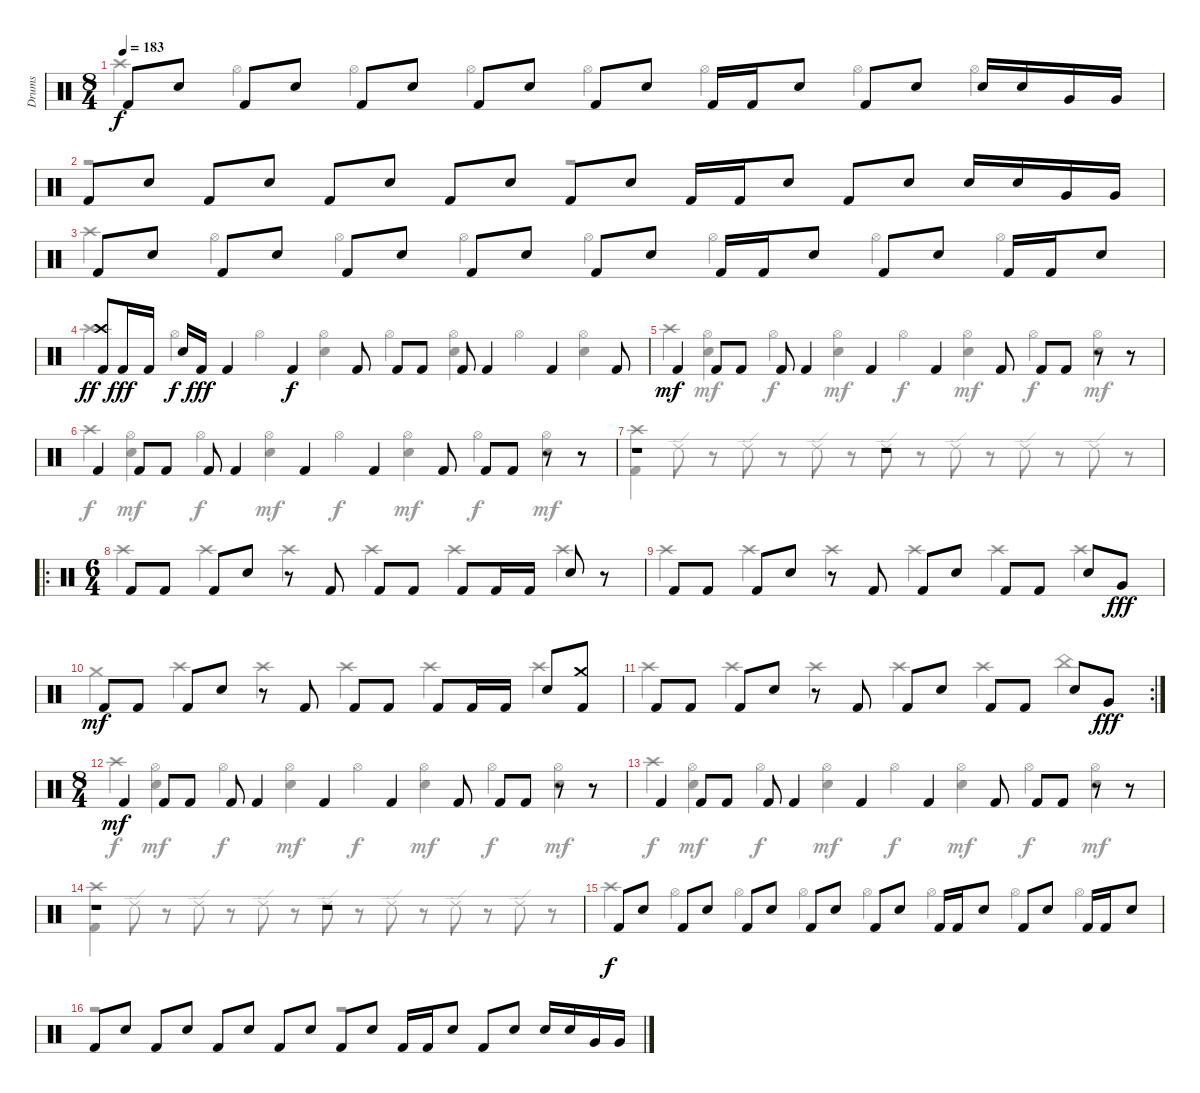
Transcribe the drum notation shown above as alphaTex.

\track ("Drums" "Drums") {instrument percussion}
\staff {score}
\articulation defaults
\voice
\ts (8 4)
\tempo 183
\clef neutral
\ks c "Kick (hit) 2".8{dy f} "Electric Snare (hit)".8 "Kick (hit) 2".8 "Electric Snare (hit)".8 "Kick (hit) 2".8 "Electric Snare (hit)".8 "Kick (hit) 2".8 "Electric Snare (hit)".8 "Kick (hit) 2".8 "Electric Snare (hit)".8 "Kick (hit) 2".16 "Kick (hit) 2".16 "Electric Snare (hit)".8 "Kick (hit) 2".8 "Electric Snare (hit)".8 "Electric Snare (hit)".16 "Electric Snare (hit)".16 "Very Low Tom (hit)".16 "Very Low Tom (hit)".16
|
"Kick (hit) 2".8 "Electric Snare (hit)".8 "Kick (hit) 2".8 "Electric Snare (hit)".8 "Kick (hit) 2".8 "Electric Snare (hit)".8 "Kick (hit) 2".8 "Electric Snare (hit)".8 "Kick (hit) 2".8 "Electric Snare (hit)".8 "Kick (hit) 2".16 "Kick (hit) 2".16 "Electric Snare (hit)".8 "Kick (hit) 2".8 "Electric Snare (hit)".8 "Electric Snare (hit)".16 "Electric Snare (hit)".16 "Very Low Tom (hit)".16 "Very Low Tom (hit)".16 |
"Kick (hit) 2".8 "Electric Snare (hit)".8 "Kick (hit) 2".8 "Electric Snare (hit)".8 "Kick (hit) 2".8 "Electric Snare (hit)".8 "Kick (hit) 2".8 "Electric Snare (hit)".8 "Kick (hit) 2".8 "Electric Snare (hit)".8 "Kick (hit) 2".16 "Kick (hit) 2".16 "Electric Snare (hit)".8 "Kick (hit) 2".8 "Electric Snare (hit)".8 "Kick (hit) 2".16 "Kick (hit) 2".16 "Electric Snare (hit)".8 |
("Crash high (hit)" "Kick (hit) 2").8{dy ff} "Kick (hit) 2".16{dy fff} "Kick (hit) 2".16 "Electric Snare (hit)".16{dy f} "Kick (hit) 2".16{dy fff} "Kick (hit) 2".4 "Kick (hit) 2".4{dy f} "Kick (hit) 2".8 "Kick (hit) 2".8 "Kick (hit) 2".8 "Kick (hit) 2".8 "Kick (hit) 2".4 "Kick (hit) 2".4 "Kick (hit) 2".8 |
"Kick (hit) 2".4{dy mf} "Kick (hit) 2".8 "Kick (hit) 2".8 "Kick (hit) 2".8 "Kick (hit) 2".4 "Kick (hit) 2".4 "Kick (hit) 2".4 "Kick (hit) 2".8 "Kick (hit) 2".8 "Kick (hit) 2".8 r.8 r.8 |
"Kick (hit) 2".4 "Kick (hit) 2".8 "Kick (hit) 2".8 "Kick (hit) 2".8 "Kick (hit) 2".4 "Kick (hit) 2".4 "Kick (hit) 2".4 "Kick (hit) 2".8 "Kick (hit) 2".8 "Kick (hit) 2".8 r.8 r.8 |
r.1 r.1 |
\ro
\ts (6 4)
"Kick (hit) 2".8 "Kick (hit) 2".8 "Kick (hit) 2".8 "Electric Snare (hit)".8 r.8 "Kick (hit) 2".8 "Kick (hit) 2".8 "Kick (hit) 2".8 "Kick (hit) 2".8 "Kick (hit) 2".16 "Kick (hit) 2".16 "Electric Snare (hit)".8 r.8 |
"Kick (hit) 2".8 "Kick (hit) 2".8 "Kick (hit) 2".8 "Electric Snare (hit)".8 r.8 "Kick (hit) 2".8 "Kick (hit) 2".8 "Electric Snare (hit)".8 "Kick (hit) 2".8 "Kick (hit) 2".8 "Electric Snare (hit)".8 "Very Low Tom (hit)".8{dy fff} |
"Kick (hit) 2".8{dy mf} "Kick (hit) 2".8 "Kick (hit) 2".8 "Electric Snare (hit)".8 r.8 "Kick (hit) 2".8 "Kick (hit) 2".8 "Kick (hit) 2".8 "Kick (hit) 2".8 "Kick (hit) 2".16 "Kick (hit) 2".16 "Electric Snare (hit)".8 ("Crash medium (hit)" "Kick (hit) 2").8 |
\rc 2 "Kick (hit) 2".8 "Kick (hit) 2".8 "Kick (hit) 2".8 "Electric Snare (hit)".8
r.8 "Kick (hit) 2".8 "Kick (hit) 2".8 "Electric Snare (hit)".8 "Kick (hit) 2".8 "Kick (hit) 2".8 "Electric Snare (hit)".8 "Very Low Tom (hit)".8{dy fff} |
\ts (8 4)
"Kick (hit) 2".4{dy mf} "Kick (hit) 2".8 "Kick (hit) 2".8 "Kick (hit) 2".8 "Kick (hit) 2".4 "Kick (hit) 2".4 "Kick (hit) 2".4 "Kick (hit) 2".8 "Kick (hit) 2".8 "Kick (hit) 2".8 r.8 r.8 |
"Kick (hit) 2".4 "Kick (hit) 2".8 "Kick (hit) 2".8 "Kick (hit) 2".8 "Kick (hit) 2".4 "Kick (hit) 2".4 "Kick (hit) 2".4 "Kick (hit) 2".8 "Kick (hit) 2".8 "Kick (hit) 2".8 r.8 r.8 |
r.1 r.1 |
"Kick (hit) 2".8{dy f} "Electric Snare (hit)".8 "Kick (hit) 2".8 "Electric Snare (hit)".8 "Kick (hit) 2".8 "Electric Snare (hit)".8 "Kick (hit) 2".8 "Electric Snare (hit)".8 "Kick (hit) 2".8 "Electric Snare (hit)".8 "Kick (hit) 2".16 "Kick (hit) 2".16 "Electric Snare (hit)".8 "Kick (hit) 2".8 "Electric Snare (hit)".8 "Kick (hit) 2".16 "Kick (hit) 2".16 "Electric Snare (hit)".8 |
"Kick (hit) 2".8 "Electric Snare (hit)".8 "Kick (hit) 2".8 "Electric Snare (hit)".8 "Kick (hit) 2".8 "Electric Snare (hit)".8 "Kick (hit) 2".8 "Electric Snare (hit)".8 "Kick (hit) 2".8 "Electric Snare (hit)".8 "Kick (hit) 2".16 "Kick (hit) 2".16 "Electric Snare (hit)".8 "Kick (hit) 2".8 "Electric Snare (hit)".8 "Electric Snare (hit)".16 "Electric Snare (hit)".16 "Very Low Tom (hit)".16 "Very Low Tom (hit)".16
\voice
\clef neutral
\ottava regular
\simile none
\ks c "Crash high (hit)".4{dy f} "Hi-Hat (open)".4 "Hi-Hat (open)".4 "Hi-Hat (open)".4 "Hi-Hat (open)".4 "Hi-Hat (open)".4 "Hi-Hat (open)".4 "Hi-Hat (open)".4
|
r.1 r.1 |
"Crash high (hit)".4 "Hi-Hat (open)".4 "Hi-Hat (open)".4 "Hi-Hat (open)".4 "Hi-Hat (open)".4 "Hi-Hat (open)".4 "Hi-Hat (open)".4 "Hi-Hat (open)".4 |
"Crash high (hit)".4 "Hi-Hat (open)".4 "Hi-Hat (open)".4 ("Hi-Hat (open)" "Electric Snare (hit)").4 "Hi-Hat (open)".4 ("Hi-Hat (open)" "Electric Snare (hit)").4 "Hi-Hat (open)".4 ("Hi-Hat (open)" "Electric Snare (hit)").4 |
"Crash high (hit)".4 ("Hi-Hat (open)" "Electric Snare (hit)").4{dy mf} "Hi-Hat (open)".4{dy f} ("Hi-Hat (open)" "Electric Snare (hit)").4{dy mf} "Hi-Hat (open)".4{dy f} ("Hi-Hat (open)" "Electric Snare (hit)").4{dy mf} "Hi-Hat (open)".4{dy f} ("Hi-Hat (open)" "Electric Snare (hit)").4{dy mf} |
"Crash high (hit)".4{dy f} ("Hi-Hat (open)" "Electric Snare (hit)").4{dy mf} "Hi-Hat (open)".4{dy f} ("Hi-Hat (open)" "Electric Snare (hit)").4{dy mf} "Hi-Hat (open)".4{dy f} ("Hi-Hat (open)" "Electric Snare (hit)").4{dy mf} "Hi-Hat (open)".4{dy f} ("Hi-Hat (open)" "Electric Snare (hit)").4{dy mf} |
("Crash high (hit)" "Kick (hit) 2").4 "Ride (edge) 2".8 r.8 "Ride (edge) 2".8 r.8 "Ride (edge) 2".8 r.8 "Ride (edge) 2".8 r.8 "Ride (edge) 2".8 r.8 "Ride (edge) 2".8 r.8 "Ride (edge) 2".8 r.8 |
"Crash high (hit)".4 "Crash high (hit)".4 "Crash high (hit)".4 "Crash high (hit)".4 "Crash high (hit)".4 "Crash high (hit)".4 |
"Crash high (hit)".4 "Crash high (hit)".4 "Crash high (hit)".4 "Crash high (hit)".4 "Crash high (hit)".4 "Crash high (hit)".4 |
"Crash medium (hit)".4 "Crash high (hit)".4 "Crash high (hit)".4 "Crash high (hit)".4 "Crash high (hit)".4 "Crash high (hit)".4 |
"Crash high (hit)".4 "Crash high (hit)".4 "Crash high (hit)".4 "Crash high (hit)".4 "Crash high (hit)".4 "China (hit)".4 |
"Crash high (hit)".4{dy f} ("Hi-Hat (open)" "Electric Snare (hit)").4{dy mf} "Hi-Hat (open)".4{dy f} ("Hi-Hat (open)" "Electric Snare (hit)").4{dy mf} "Hi-Hat (open)".4{dy f} ("Hi-Hat (open)" "Electric Snare (hit)").4{dy mf} "Hi-Hat (open)".4{dy f} ("Hi-Hat (open)" "Electric Snare (hit)").4{dy mf} |
"Crash high (hit)".4{dy f} ("Hi-Hat (open)" "Electric Snare (hit)").4{dy mf} "Hi-Hat (open)".4{dy f} ("Hi-Hat (open)" "Electric Snare (hit)").4{dy mf} "Hi-Hat (open)".4{dy f} ("Hi-Hat (open)" "Electric Snare (hit)").4{dy mf} "Hi-Hat (open)".4{dy f} ("Hi-Hat (open)" "Electric Snare (hit)").4{dy mf} |
("Crash high (hit)" "Kick (hit) 2").4 "Ride (edge) 2".8 r.8 "Ride (edge) 2".8 r.8 "Ride (edge) 2".8 r.8 "Ride (edge) 2".8 r.8 "Ride (edge) 2".8 r.8 "Ride (edge) 2".8 r.8 "Ride (edge) 2".8 r.8 |
"Crash high (hit)".4{dy f} "Hi-Hat (open)".4 "Hi-Hat (open)".4 "Hi-Hat (open)".4 "Hi-Hat (open)".4 "Hi-Hat (open)".4 "Hi-Hat (open)".4 "Hi-Hat (open)".4 |
r.1 r.1
